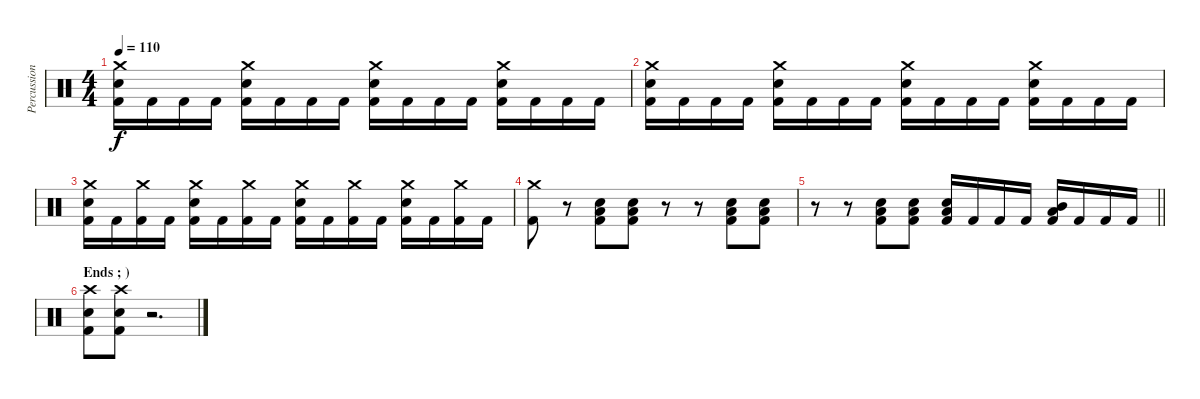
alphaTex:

\track ("Percussion" "Percussion") {instrument percussion}
\staff {score}
\articulation defaults
\ts (4 4)
\tempo 110
\clef neutral
\ks c
("Crash medium (hit)" "Electric Snare (hit)" "Kick (hit) 2").16{dy f} "Kick (hit) 2".16 "Kick (hit) 2".16 "Kick (hit) 2".16 ("Crash medium (hit)" "Electric Snare (hit)" "Kick (hit) 2").16 "Kick (hit) 2".16 "Kick (hit) 2".16 "Kick (hit) 2".16 ("Crash medium (hit)" "Electric Snare (hit)" "Kick (hit) 2").16 "Kick (hit) 2".16 "Kick (hit) 2".16 "Kick (hit) 2".16 ("Crash medium (hit)" "Electric Snare (hit)" "Kick (hit) 2").16 "Kick (hit) 2".16 "Kick (hit) 2".16 "Kick (hit) 2".16 |
("Crash medium (hit)" "Electric Snare (hit)" "Kick (hit) 2").16 "Kick (hit) 2".16 "Kick (hit) 2".16 "Kick (hit) 2".16 ("Crash medium (hit)" "Electric Snare (hit)" "Kick (hit) 2").16 "Kick (hit) 2".16 "Kick (hit) 2".16 "Kick (hit) 2".16 ("Crash medium (hit)" "Electric Snare (hit)" "Kick (hit) 2").16 "Kick (hit) 2".16 "Kick (hit) 2".16 "Kick (hit) 2".16 ("Crash medium (hit)" "Electric Snare (hit)" "Kick (hit) 2").16 "Kick (hit) 2".16 "Kick (hit) 2".16 "Kick (hit) 2".16 |
("Crash medium (hit)" "Electric Snare (hit)" "Kick (hit) 2").16 "Kick (hit) 2".16 ("Crash medium (hit)" "Kick (hit) 2").16 "Kick (hit) 2".16 ("Crash medium (hit)" "Electric Snare (hit)" "Kick (hit) 2").16 "Kick (hit) 2".16 ("Crash medium (hit)" "Kick (hit) 2").16 "Kick (hit) 2".16 ("Crash medium (hit)" "Electric Snare (hit)" "Kick (hit) 2").16 "Kick (hit) 2".16 ("Crash medium (hit)" "Kick (hit) 2").16 "Kick (hit) 2".16 ("Crash medium (hit)" "Electric Snare (hit)" "Kick (hit) 2").16 "Kick (hit) 2".16 ("Crash medium (hit)" "Kick (hit) 2").16 "Kick (hit) 2".16 |
("Crash medium (hit)" "Kick (hit) 2").8 r.8 ("Low Floor Tom (hit)" "Electric Snare (hit)" "Kick (hit) 2").8 ("Low Floor Tom (hit)" "Electric Snare (hit)" "Kick (hit) 2").8 r.8 r.8 ("Low Floor Tom (hit)" "Electric Snare (hit)" "Kick (hit) 2").8 ("Low Floor Tom (hit)" "Electric Snare (hit)" "Kick (hit) 2").8 |
\barLineRight lightlight
r.8 r.8 ("Low Floor Tom (hit)" "Electric Snare (hit)" "Kick (hit) 2").8 ("Low Floor Tom (hit)" "Electric Snare (hit)" "Kick (hit) 2").8 ("Low Floor Tom (hit)" "Electric Snare (hit)" "Kick (hit) 2").16 "Kick (hit) 2".16 "Kick (hit) 2".16 "Kick (hit) 2".16 ("Mid Tom (hit)" "Low Tom (hit)" "Kick (hit) 2").16 "Kick (hit) 2".16 "Kick (hit) 2".16 "Kick (hit) 2".16 |
\section ("" "Ends ; )")
("Crash high (hit)" "Electric Snare (hit)" "Kick (hit) 2").8 ("Crash high (hit)" "Electric Snare (hit)" "Kick (hit) 2").8 r.2{d}
